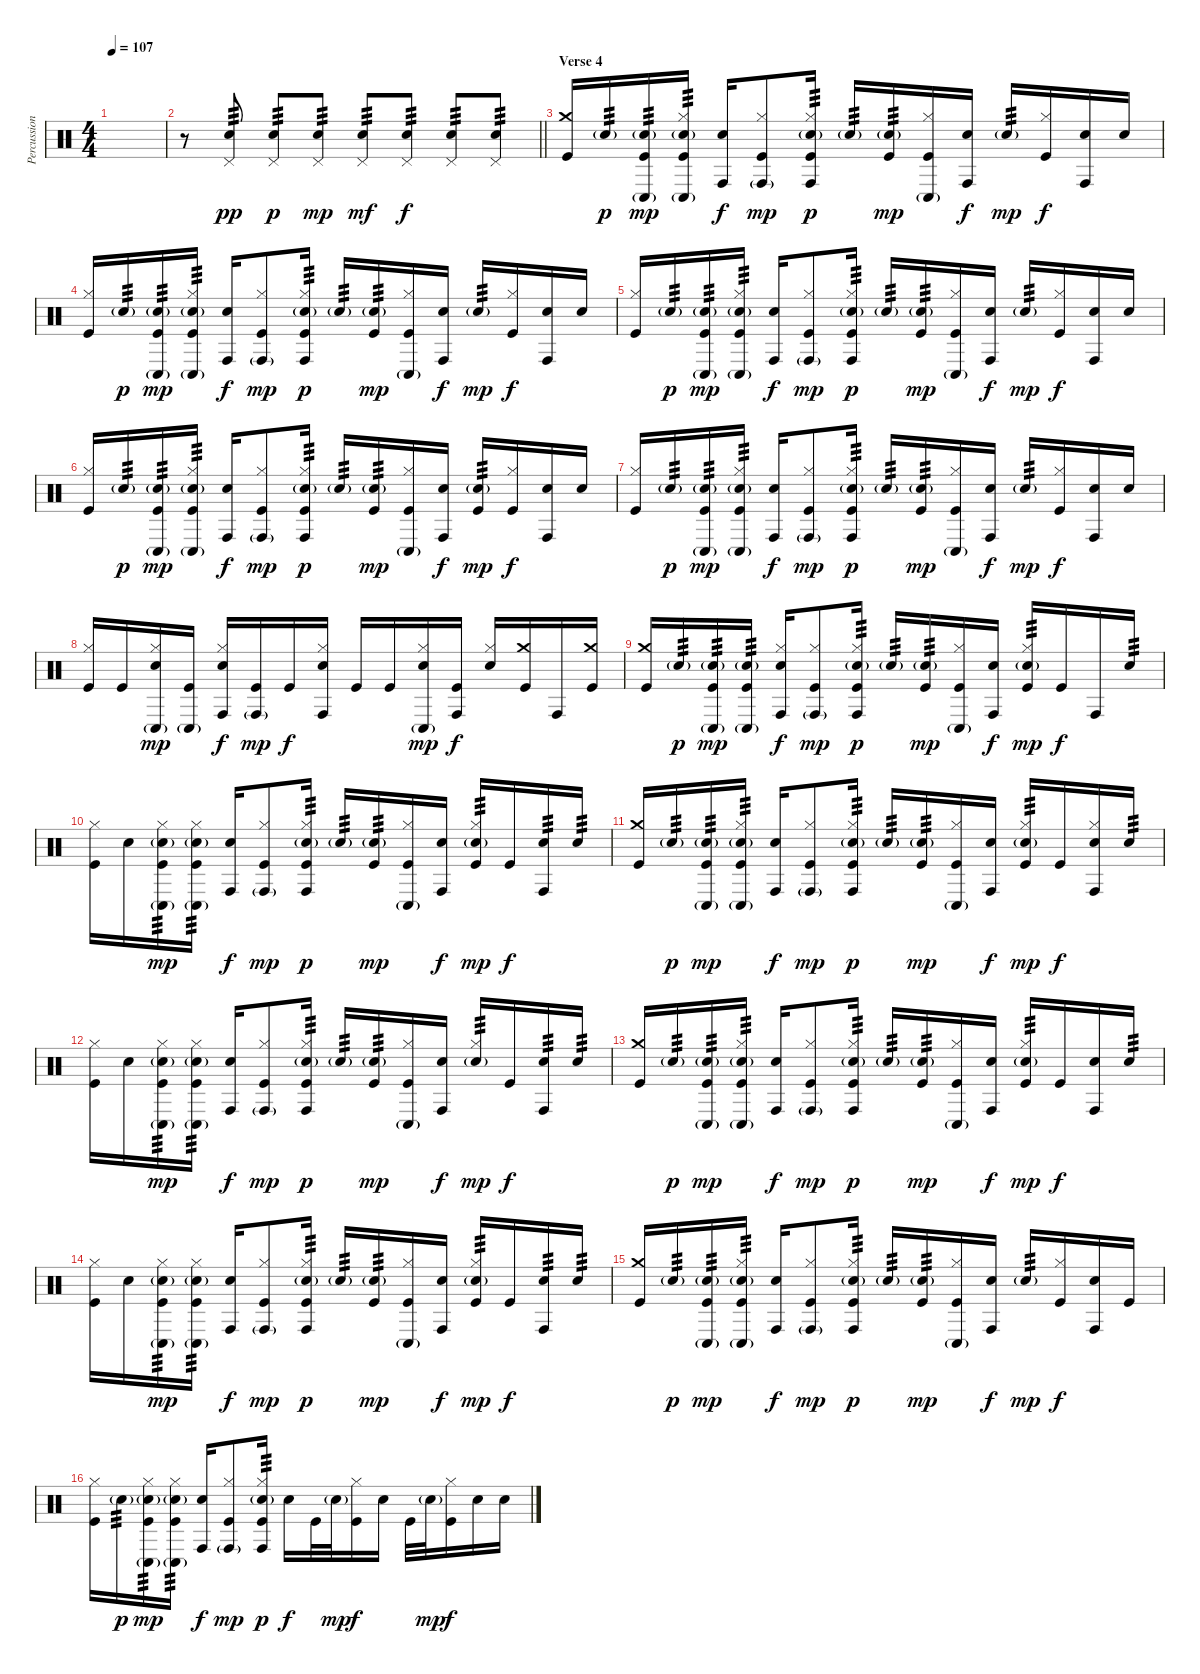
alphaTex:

\track ("Percussion" "Percussion") {instrument percussion}
\staff {score}
\articulation defaults
\ts (4 4)
\tempo 107
\clef neutral
\ks c
|
\barLineRight lightlight
r.8 ("Pedal Hi-Hat (hit)" "Snare (hit) 2").8{tp 3 dy pp} ("Pedal Hi-Hat (hit)" "Snare (hit) 2").8{tp 3 dy p} ("Pedal Hi-Hat (hit)" "Snare (hit) 2").8{tp 3 dy mp} ("Pedal Hi-Hat (hit)" "Snare (hit) 2").8{tp 3 dy mf} ("Pedal Hi-Hat (hit)" "Snare (hit) 2").8{tp 3 dy f} ("Pedal Hi-Hat (hit)" "Snare (hit) 2").8{tp 3} ("Pedal Hi-Hat (hit)" "Snare (hit) 2").8{tp 3} |
\section ("" "Verse 4")
("Crash medium (hit)" "Kick (hit)").16 "Snare (hit) 2"{g}.16{tp 3 dy p} ("Snare (hit) 2"{g} "Conga low (hit)"{g} "Kick (hit)").16{tp 3 dy mp} ("Hi-Hat (closed)" "Snare (hit) 2"{g} "Conga low (hit)"{g} "Kick (hit)").16{tp 3} ("Snare (hit) 2" "Conga high (hit)").16{dy f} ("Hi-Hat (closed)" "Conga high (hit)"{g} "Kick (hit)").8{dy mp} ("Hi-Hat (closed)" "Snare (hit) 2"{g} "Conga high (hit)" "Kick (hit)").16{tp 3 dy p} "Snare (hit) 2"{g}.16{tp 3} ("Snare (hit) 2"{g} "Kick (hit)").16{tp 3 dy mp} ("Hi-Hat (closed)" "Conga low (hit)"{g} "Kick (hit)").16 ("Snare (hit) 2" "Conga high (hit)").16{dy f} "Snare (hit) 2"{g}.16{tp 3 dy mp} ("Hi-Hat (closed)" "Kick (hit)").16{dy f} ("Snare (hit) 2" "Conga high (hit)").16 "Snare (hit) 2".16 |
("Hi-Hat (closed)" "Kick (hit)").16 "Snare (hit) 2"{g}.16{tp 3 dy p} ("Snare (hit) 2"{g} "Conga low (hit)"{g} "Kick (hit)").16{tp 3 dy mp} ("Hi-Hat (closed)" "Snare (hit) 2"{g} "Conga low (hit)"{g} "Kick (hit)").16{tp 3} ("Snare (hit) 2" "Conga high (hit)").16{dy f} ("Hi-Hat (closed)" "Conga high (hit)"{g} "Kick (hit)").8{dy mp} ("Hi-Hat (closed)" "Snare (hit) 2"{g} "Conga high (hit)" "Kick (hit)").16{tp 3 dy p} "Snare (hit) 2"{g}.16{tp 3} ("Snare (hit) 2"{g} "Kick (hit)").16{tp 3 dy mp} ("Hi-Hat (closed)" "Conga low (hit)"{g} "Kick (hit)").16 ("Snare (hit) 2" "Conga high (hit)").16{dy f} "Snare (hit) 2"{g}.16{tp 3 dy mp} ("Hi-Hat (closed)" "Kick (hit)").16{dy f} ("Snare (hit) 2" "Conga high (hit)").16 "Snare (hit) 2".16 |
("Hi-Hat (closed)" "Kick (hit)").16 "Snare (hit) 2"{g}.16{tp 3 dy p} ("Snare (hit) 2"{g} "Conga low (hit)"{g} "Kick (hit)").16{tp 3 dy mp} ("Hi-Hat (closed)" "Snare (hit) 2"{g} "Conga low (hit)"{g} "Kick (hit)").16{tp 3} ("Snare (hit) 2" "Conga high (hit)").16{dy f} ("Hi-Hat (closed)" "Conga high (hit)"{g} "Kick (hit)").8{dy mp} ("Hi-Hat (closed)" "Snare (hit) 2"{g} "Conga high (hit)" "Kick (hit)").16{tp 3 dy p} "Snare (hit) 2"{g}.16{tp 3} ("Snare (hit) 2"{g} "Kick (hit)").16{tp 3 dy mp} ("Hi-Hat (closed)" "Conga low (hit)"{g} "Kick (hit)").16 ("Snare (hit) 2" "Conga high (hit)").16{dy f} "Snare (hit) 2"{g}.16{tp 3 dy mp} ("Hi-Hat (closed)" "Kick (hit)").16{dy f} ("Snare (hit) 2" "Conga high (hit)").16 "Snare (hit) 2".16 |
("Hi-Hat (closed)" "Kick (hit)").16 "Snare (hit) 2"{g}.16{tp 3 dy p} ("Snare (hit) 2"{g} "Conga low (hit)"{g} "Kick (hit)").16{tp 3 dy mp} ("Hi-Hat (closed)" "Snare (hit) 2"{g} "Conga low (hit)"{g} "Kick (hit)").16{tp 3} ("Snare (hit) 2" "Conga high (hit)").16{dy f} ("Hi-Hat (closed)" "Conga high (hit)"{g} "Kick (hit)").8{dy mp} ("Hi-Hat (closed)" "Snare (hit) 2"{g} "Conga high (hit)" "Kick (hit)").16{tp 3 dy p} "Snare (hit) 2"{g}.16{tp 3} ("Snare (hit) 2"{g} "Kick (hit)").16{tp 3 dy mp} ("Hi-Hat (closed)" "Conga low (hit)"{g} "Kick (hit)").16 ("Snare (hit) 2" "Conga high (hit)").16{dy f} ("Snare (hit) 2"{g} "Kick (hit)").16{tp 3 dy mp} ("Hi-Hat (closed)" "Kick (hit)").16{dy f} ("Snare (hit) 2" "Conga high (hit)").16 "Snare (hit) 2".16 |
("Hi-Hat (closed)" "Kick (hit)").16 "Snare (hit) 2"{g}.16{tp 3 dy p} ("Snare (hit) 2"{g} "Conga low (hit)"{g} "Kick (hit)").16{tp 3 dy mp} ("Hi-Hat (closed)" "Snare (hit) 2"{g} "Conga low (hit)"{g} "Kick (hit)").16{tp 3} ("Snare (hit) 2" "Conga high (hit)").16{dy f} ("Hi-Hat (closed)" "Conga high (hit)"{g} "Kick (hit)").8{dy mp} ("Hi-Hat (closed)" "Snare (hit) 2"{g} "Conga high (hit)" "Kick (hit)").16{tp 3 dy p} "Snare (hit) 2"{g}.16{tp 3} ("Snare (hit) 2"{g} "Kick (hit)").16{tp 3 dy mp} ("Hi-Hat (closed)" "Conga low (hit)"{g} "Kick (hit)").16 ("Snare (hit) 2" "Conga high (hit)").16{dy f} "Snare (hit) 2"{g}.16{tp 3 dy mp} ("Hi-Hat (closed)" "Kick (hit)").16{dy f} ("Snare (hit) 2" "Conga high (hit)").16 "Snare (hit) 2".16 |
("Hi-Hat (closed)" "Kick (hit)").16 "Kick (hit)".16 ("Hi-Hat (closed)" "Snare (hit) 2" "Conga low (hit)"{g}).16{dy mp} ("Conga low (hit)"{g} "Kick (hit)").16 ("Hi-Hat (closed)" "Snare (hit) 2" "Conga high (hit)").16{dy f} ("Conga high (hit)"{g} "Kick (hit)").16{dy mp} "Kick (hit)".16{dy f} ("Hi-Hat (closed)" "Snare (hit) 2" "Conga high (hit)").16 "Kick (hit)".16 "Kick (hit)".16 ("Hi-Hat (closed)" "Snare (hit) 2" "Conga low (hit)"{g}).16{dy mp} ("Conga high (hit)" "Kick (hit)").16{dy f} ("Hi-Hat (closed)" "Snare (hit) 2").16 ("Crash medium (hit)" "Kick (hit)").16 "Conga high (hit)".16 ("Crash medium (hit)" "Kick (hit)").16 |
("Crash medium (hit)" "Kick (hit)").16 "Snare (hit) 2"{g}.16{tp 3 dy p} ("Snare (hit) 2"{g} "Conga low (hit)"{g} "Kick (hit)").16{tp 3 dy mp} ("Snare (hit) 2"{g} "Conga low (hit)"{g} "Kick (hit)").16{tp 3} ("Hi-Hat (closed)" "Snare (hit) 2" "Conga high (hit)").16{dy f} ("Hi-Hat (closed)" "Conga high (hit)"{g} "Kick (hit)").8{dy mp} ("Hi-Hat (closed)" "Snare (hit) 2"{g} "Conga high (hit)" "Kick (hit)").16{tp 3 dy p} "Snare (hit) 2"{g}.16{tp 3} ("Snare (hit) 2"{g} "Kick (hit)").16{tp 3 dy mp} ("Hi-Hat (closed)" "Conga low (hit)"{g} "Kick (hit)").16 ("Snare (hit) 2" "Conga high (hit)").16{dy f} ("Hi-Hat (closed)" "Snare (hit) 2"{g} "Kick (hit)").16{tp 3 dy mp} "Kick (hit)".16{dy f} "Conga high (hit)".16 "Snare (hit) 2".16{tp 3} |
("Hi-Hat (closed)" "Kick (hit)").16 "Snare (hit) 2".16 ("Hi-Hat (closed)" "Snare (hit) 2"{g} "Conga low (hit)"{g} "Kick (hit)").16{tp 3 dy mp} ("Hi-Hat (closed)" "Snare (hit) 2"{g} "Conga low (hit)"{g} "Kick (hit)").16{tp 3} ("Snare (hit) 2" "Conga high (hit)").16{dy f} ("Hi-Hat (closed)" "Conga high (hit)"{g} "Kick (hit)").8{dy mp} ("Hi-Hat (closed)" "Snare (hit) 2"{g} "Conga high (hit)" "Kick (hit)").16{tp 3 dy p} "Snare (hit) 2"{g}.16{tp 3} ("Snare (hit) 2"{g} "Kick (hit)").16{tp 3 dy mp} ("Hi-Hat (closed)" "Conga low (hit)"{g} "Kick (hit)").16 ("Snare (hit) 2" "Conga high (hit)").16{dy f} ("Hi-Hat (closed)" "Snare (hit) 2"{g} "Kick (hit)").16{tp 3 dy mp} "Kick (hit)".16{dy f} ("Snare (hit) 2" "Conga high (hit)").16{tp 3} "Snare (hit) 2".16{tp 3} |
("Crash medium (hit)" "Kick (hit)").16 "Snare (hit) 2"{g}.16{tp 3 dy p} ("Snare (hit) 2"{g} "Conga low (hit)"{g} "Kick (hit)").16{tp 3 dy mp} ("Hi-Hat (closed)" "Snare (hit) 2"{g} "Conga low (hit)"{g} "Kick (hit)").16{tp 3} ("Snare (hit) 2" "Conga high (hit)").16{dy f} ("Hi-Hat (closed)" "Conga high (hit)"{g} "Kick (hit)").8{dy mp} ("Hi-Hat (closed)" "Snare (hit) 2"{g} "Conga high (hit)" "Kick (hit)").16{tp 3 dy p} "Snare (hit) 2"{g}.16{tp 3} ("Snare (hit) 2"{g} "Kick (hit)").16{tp 3 dy mp} ("Hi-Hat (closed)" "Conga low (hit)"{g} "Kick (hit)").16 ("Snare (hit) 2" "Conga high (hit)").16{dy f} ("Hi-Hat (closed)" "Snare (hit) 2"{g} "Kick (hit)").16{tp 3 dy mp} "Kick (hit)".16{dy f} ("Hi-Hat (closed)" "Snare (hit) 2" "Conga high (hit)").16 "Snare (hit) 2".16{tp 3} |
("Hi-Hat (closed)" "Kick (hit)").16 "Snare (hit) 2".16 ("Hi-Hat (closed)" "Snare (hit) 2"{g} "Conga low (hit)"{g} "Kick (hit)").16{tp 3 dy mp} ("Hi-Hat (closed)" "Snare (hit) 2"{g} "Conga low (hit)"{g} "Kick (hit)").16{tp 3} ("Snare (hit) 2" "Conga high (hit)").16{dy f} ("Hi-Hat (closed)" "Conga high (hit)"{g} "Kick (hit)").8{dy mp} ("Hi-Hat (closed)" "Snare (hit) 2"{g} "Conga high (hit)" "Kick (hit)").16{tp 3 dy p} "Snare (hit) 2"{g}.16{tp 3} ("Snare (hit) 2"{g} "Kick (hit)").16{tp 3 dy mp} ("Hi-Hat (closed)" "Conga low (hit)"{g} "Kick (hit)").16 ("Snare (hit) 2" "Conga high (hit)").16{dy f} ("Hi-Hat (closed)" "Snare (hit) 2"{g}).16{tp 3 dy mp} "Kick (hit)".16{dy f} ("Snare (hit) 2" "Conga high (hit)").16{tp 3} "Snare (hit) 2".16{tp 3} |
("Crash medium (hit)" "Kick (hit)").16 "Snare (hit) 2"{g}.16{tp 3 dy p} ("Snare (hit) 2"{g} "Conga low (hit)"{g} "Kick (hit)").16{tp 3 dy mp} ("Hi-Hat (closed)" "Snare (hit) 2"{g} "Conga low (hit)"{g} "Kick (hit)").16{tp 3} ("Snare (hit) 2" "Conga high (hit)").16{dy f} ("Hi-Hat (closed)" "Conga high (hit)"{g} "Kick (hit)").8{dy mp} ("Hi-Hat (closed)" "Snare (hit) 2"{g} "Conga high (hit)" "Kick (hit)").16{tp 3 dy p} "Snare (hit) 2"{g}.16{tp 3} ("Snare (hit) 2"{g} "Kick (hit)").16{tp 3 dy mp} ("Hi-Hat (closed)" "Conga low (hit)"{g} "Kick (hit)").16 ("Snare (hit) 2" "Conga high (hit)").16{dy f} ("Hi-Hat (closed)" "Snare (hit) 2"{g} "Kick (hit)").16{tp 3 dy mp} "Kick (hit)".16{dy f} ("Snare (hit) 2" "Conga high (hit)").16 "Snare (hit) 2".16{tp 3} |
("Hi-Hat (closed)" "Kick (hit)").16 "Snare (hit) 2".16 ("Hi-Hat (closed)" "Snare (hit) 2"{g} "Conga low (hit)"{g} "Kick (hit)").16{tp 3 dy mp} ("Hi-Hat (closed)" "Snare (hit) 2"{g} "Conga low (hit)"{g} "Kick (hit)").16{tp 3} ("Snare (hit) 2" "Conga high (hit)").16{dy f} ("Hi-Hat (closed)" "Conga high (hit)"{g} "Kick (hit)").8{dy mp} ("Hi-Hat (closed)" "Snare (hit) 2"{g} "Conga high (hit)" "Kick (hit)").16{tp 3 dy p} "Snare (hit) 2"{g}.16{tp 3} ("Snare (hit) 2"{g} "Kick (hit)").16{tp 3 dy mp} ("Hi-Hat (closed)" "Conga low (hit)"{g} "Kick (hit)").16 ("Snare (hit) 2" "Conga high (hit)").16{dy f} ("Hi-Hat (closed)" "Snare (hit) 2"{g} "Kick (hit)").16{tp 3 dy mp} "Kick (hit)".16{dy f} ("Snare (hit) 2" "Conga high (hit)").16{tp 3} "Snare (hit) 2".16{tp 3} |
("Crash medium (hit)" "Kick (hit)").16 "Snare (hit) 2"{g}.16{tp 3 dy p} ("Snare (hit) 2"{g} "Conga low (hit)"{g} "Kick (hit)").16{tp 3 dy mp} ("Hi-Hat (closed)" "Snare (hit) 2"{g} "Conga low (hit)"{g} "Kick (hit)").16{tp 3} ("Snare (hit) 2" "Conga high (hit)").16{dy f} ("Hi-Hat (closed)" "Conga high (hit)"{g} "Kick (hit)").8{dy mp} ("Hi-Hat (closed)" "Snare (hit) 2"{g} "Conga high (hit)" "Kick (hit)").16{tp 3 dy p} "Snare (hit) 2"{g}.16{tp 3} ("Snare (hit) 2"{g} "Kick (hit)").16{tp 3 dy mp} ("Hi-Hat (closed)" "Conga low (hit)"{g} "Kick (hit)").16 ("Snare (hit) 2" "Conga high (hit)").16{dy f} "Snare (hit) 2"{g}.16{tp 3 dy mp} ("Hi-Hat (closed)" "Kick (hit)").16{dy f} ("Snare (hit) 2" "Conga high (hit)").16 "Kick (hit)".16 |
("Hi-Hat (closed)" "Kick (hit)").16 "Snare (hit) 2"{g}.16{tp 3 dy p} ("Hi-Hat (closed)" "Snare (hit) 2"{g} "Conga low (hit)"{g} "Kick (hit)").16{tp 3 dy mp} ("Hi-Hat (closed)" "Snare (hit) 2"{g} "Conga low (hit)"{g} "Kick (hit)").16{tp 3} ("Snare (hit) 2" "Conga high (hit)").16{dy f} ("Hi-Hat (closed)" "Conga high (hit)"{g} "Kick (hit)").8{dy mp} ("Hi-Hat (closed)" "Snare (hit) 2"{g} "Conga high (hit)" "Kick (hit)").16{tp 3 dy p} "Snare (hit) 2".16{dy f} "Kick (hit)".32 "Snare (hit) 2"{g}.32{dy mp} ("Hi-Hat (closed)" "Kick (hit)").16{dy f} "Snare (hit) 2".16 "Kick (hit)".32 "Snare (hit) 2"{g}.32{dy mp} ("Hi-Hat (closed)" "Kick (hit)").16{dy f} "Snare (hit) 2".16 "Snare (hit) 2".16
